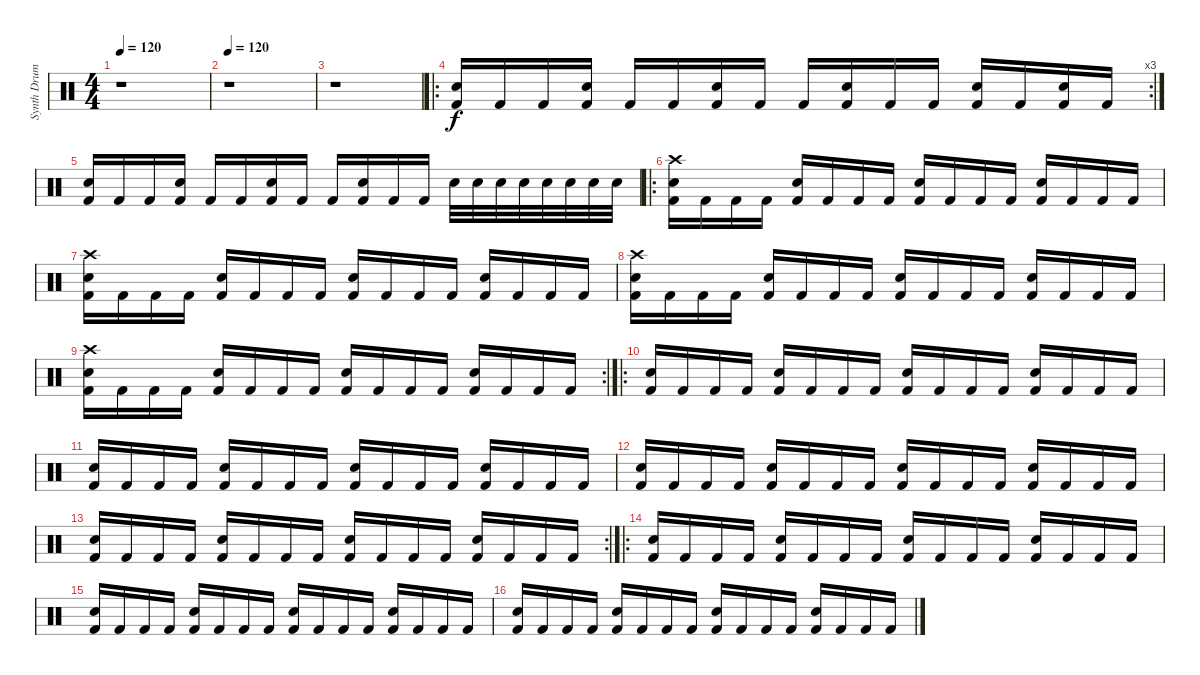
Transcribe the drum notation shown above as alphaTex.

\track ("Synth Drums" "Synth Drum") {instrument percussion}
\staff {score}
\articulation defaults
\ts (4 4)
\tempo 120
\clef neutral
\ks c
r.1{dy f} |
\tempo 120
r.1 |
r.1 |
\ro
\rc 3
("Electric Snare (hit)" "Kick (hit) 2").16 "Kick (hit) 2".16 "Kick (hit) 2".16 ("Electric Snare (hit)" "Kick (hit) 2").16 "Kick (hit) 2".16 "Kick (hit) 2".16 ("Electric Snare (hit)" "Kick (hit) 2").16 "Kick (hit) 2".16 "Kick (hit) 2".16 ("Electric Snare (hit)" "Kick (hit) 2").16 "Kick (hit) 2".16 "Kick (hit) 2".16 ("Electric Snare (hit)" "Kick (hit) 2").16 "Kick (hit) 2".16 ("Electric Snare (hit)" "Kick (hit) 2").16 "Kick (hit) 2".16 |
("Electric Snare (hit)" "Kick (hit) 2").16 "Kick (hit) 2".16 "Kick (hit) 2".16 ("Electric Snare (hit)" "Kick (hit) 2").16 "Kick (hit) 2".16 "Kick (hit) 2".16 ("Electric Snare (hit)" "Kick (hit) 2").16 "Kick (hit) 2".16 "Kick (hit) 2".16 ("Electric Snare (hit)" "Kick (hit) 2").16 "Kick (hit) 2".16 "Kick (hit) 2".16 "Electric Snare (hit)".32 "Electric Snare (hit)".32 "Electric Snare (hit)".32 "Electric Snare (hit)".32 "Electric Snare (hit)".32 "Electric Snare (hit)".32 "Electric Snare (hit)".32 "Electric Snare (hit)".32 |
\ro
("Crash high (hit)" "Electric Snare (hit)" "Kick (hit) 2").16 "Kick (hit) 2".16 "Kick (hit) 2".16 "Kick (hit) 2".16 ("Electric Snare (hit)" "Kick (hit) 2").16 "Kick (hit) 2".16 "Kick (hit) 2".16 "Kick (hit) 2".16 ("Electric Snare (hit)" "Kick (hit) 2").16 "Kick (hit) 2".16 "Kick (hit) 2".16 "Kick (hit) 2".16 ("Electric Snare (hit)" "Kick (hit) 2").16 "Kick (hit) 2".16 "Kick (hit) 2".16 "Kick (hit) 2".16 |
("Crash high (hit)" "Electric Snare (hit)" "Kick (hit) 2").16 "Kick (hit) 2".16 "Kick (hit) 2".16 "Kick (hit) 2".16 ("Electric Snare (hit)" "Kick (hit) 2").16 "Kick (hit) 2".16 "Kick (hit) 2".16 "Kick (hit) 2".16 ("Electric Snare (hit)" "Kick (hit) 2").16 "Kick (hit) 2".16 "Kick (hit) 2".16 "Kick (hit) 2".16 ("Electric Snare (hit)" "Kick (hit) 2").16 "Kick (hit) 2".16 "Kick (hit) 2".16 "Kick (hit) 2".16 |
("Crash high (hit)" "Electric Snare (hit)" "Kick (hit) 2").16 "Kick (hit) 2".16 "Kick (hit) 2".16 "Kick (hit) 2".16 ("Electric Snare (hit)" "Kick (hit) 2").16 "Kick (hit) 2".16 "Kick (hit) 2".16 "Kick (hit) 2".16 ("Electric Snare (hit)" "Kick (hit) 2").16 "Kick (hit) 2".16 "Kick (hit) 2".16 "Kick (hit) 2".16 ("Electric Snare (hit)" "Kick (hit) 2").16 "Kick (hit) 2".16 "Kick (hit) 2".16 "Kick (hit) 2".16 |
\rc 2
("Crash high (hit)" "Electric Snare (hit)" "Kick (hit) 2").16 "Kick (hit) 2".16 "Kick (hit) 2".16 "Kick (hit) 2".16 ("Electric Snare (hit)" "Kick (hit) 2").16 "Kick (hit) 2".16 "Kick (hit) 2".16 "Kick (hit) 2".16 ("Electric Snare (hit)" "Kick (hit) 2").16 "Kick (hit) 2".16 "Kick (hit) 2".16 "Kick (hit) 2".16 ("Electric Snare (hit)" "Kick (hit) 2").16 "Kick (hit) 2".16 "Kick (hit) 2".16 "Kick (hit) 2".16 |
\ro
("Electric Snare (hit)" "Kick (hit) 2").16 "Kick (hit) 2".16 "Kick (hit) 2".16 "Kick (hit) 2".16 ("Electric Snare (hit)" "Kick (hit) 2").16 "Kick (hit) 2".16 "Kick (hit) 2".16 "Kick (hit) 2".16 ("Electric Snare (hit)" "Kick (hit) 2").16 "Kick (hit) 2".16 "Kick (hit) 2".16 "Kick (hit) 2".16 ("Electric Snare (hit)" "Kick (hit) 2").16 "Kick (hit) 2".16 "Kick (hit) 2".16 "Kick (hit) 2".16 |
("Electric Snare (hit)" "Kick (hit) 2").16 "Kick (hit) 2".16 "Kick (hit) 2".16 "Kick (hit) 2".16 ("Electric Snare (hit)" "Kick (hit) 2").16 "Kick (hit) 2".16 "Kick (hit) 2".16 "Kick (hit) 2".16 ("Electric Snare (hit)" "Kick (hit) 2").16 "Kick (hit) 2".16 "Kick (hit) 2".16 "Kick (hit) 2".16 ("Electric Snare (hit)" "Kick (hit) 2").16 "Kick (hit) 2".16 "Kick (hit) 2".16 "Kick (hit) 2".16 |
("Electric Snare (hit)" "Kick (hit) 2").16 "Kick (hit) 2".16 "Kick (hit) 2".16 "Kick (hit) 2".16 ("Electric Snare (hit)" "Kick (hit) 2").16 "Kick (hit) 2".16 "Kick (hit) 2".16 "Kick (hit) 2".16 ("Electric Snare (hit)" "Kick (hit) 2").16 "Kick (hit) 2".16 "Kick (hit) 2".16 "Kick (hit) 2".16 ("Electric Snare (hit)" "Kick (hit) 2").16 "Kick (hit) 2".16 "Kick (hit) 2".16 "Kick (hit) 2".16 |
\rc 2
("Electric Snare (hit)" "Kick (hit) 2").16 "Kick (hit) 2".16 "Kick (hit) 2".16 "Kick (hit) 2".16 ("Electric Snare (hit)" "Kick (hit) 2").16 "Kick (hit) 2".16 "Kick (hit) 2".16 "Kick (hit) 2".16 ("Electric Snare (hit)" "Kick (hit) 2").16 "Kick (hit) 2".16 "Kick (hit) 2".16 "Kick (hit) 2".16 ("Electric Snare (hit)" "Kick (hit) 2").16 "Kick (hit) 2".16 "Kick (hit) 2".16 "Kick (hit) 2".16 |
\ro
("Electric Snare (hit)" "Kick (hit) 2").16 "Kick (hit) 2".16 "Kick (hit) 2".16 "Kick (hit) 2".16 ("Electric Snare (hit)" "Kick (hit) 2").16 "Kick (hit) 2".16 "Kick (hit) 2".16 "Kick (hit) 2".16 ("Electric Snare (hit)" "Kick (hit) 2").16 "Kick (hit) 2".16 "Kick (hit) 2".16 "Kick (hit) 2".16 ("Electric Snare (hit)" "Kick (hit) 2").16 "Kick (hit) 2".16 "Kick (hit) 2".16 "Kick (hit) 2".16 |
("Electric Snare (hit)" "Kick (hit) 2").16 "Kick (hit) 2".16 "Kick (hit) 2".16 "Kick (hit) 2".16 ("Electric Snare (hit)" "Kick (hit) 2").16 "Kick (hit) 2".16 "Kick (hit) 2".16 "Kick (hit) 2".16 ("Electric Snare (hit)" "Kick (hit) 2").16 "Kick (hit) 2".16 "Kick (hit) 2".16 "Kick (hit) 2".16 ("Electric Snare (hit)" "Kick (hit) 2").16 "Kick (hit) 2".16 "Kick (hit) 2".16 "Kick (hit) 2".16 |
("Electric Snare (hit)" "Kick (hit) 2").16 "Kick (hit) 2".16 "Kick (hit) 2".16 "Kick (hit) 2".16 ("Electric Snare (hit)" "Kick (hit) 2").16 "Kick (hit) 2".16 "Kick (hit) 2".16 "Kick (hit) 2".16 ("Electric Snare (hit)" "Kick (hit) 2").16 "Kick (hit) 2".16 "Kick (hit) 2".16 "Kick (hit) 2".16 ("Electric Snare (hit)" "Kick (hit) 2").16 "Kick (hit) 2".16 "Kick (hit) 2".16 "Kick (hit) 2".16
